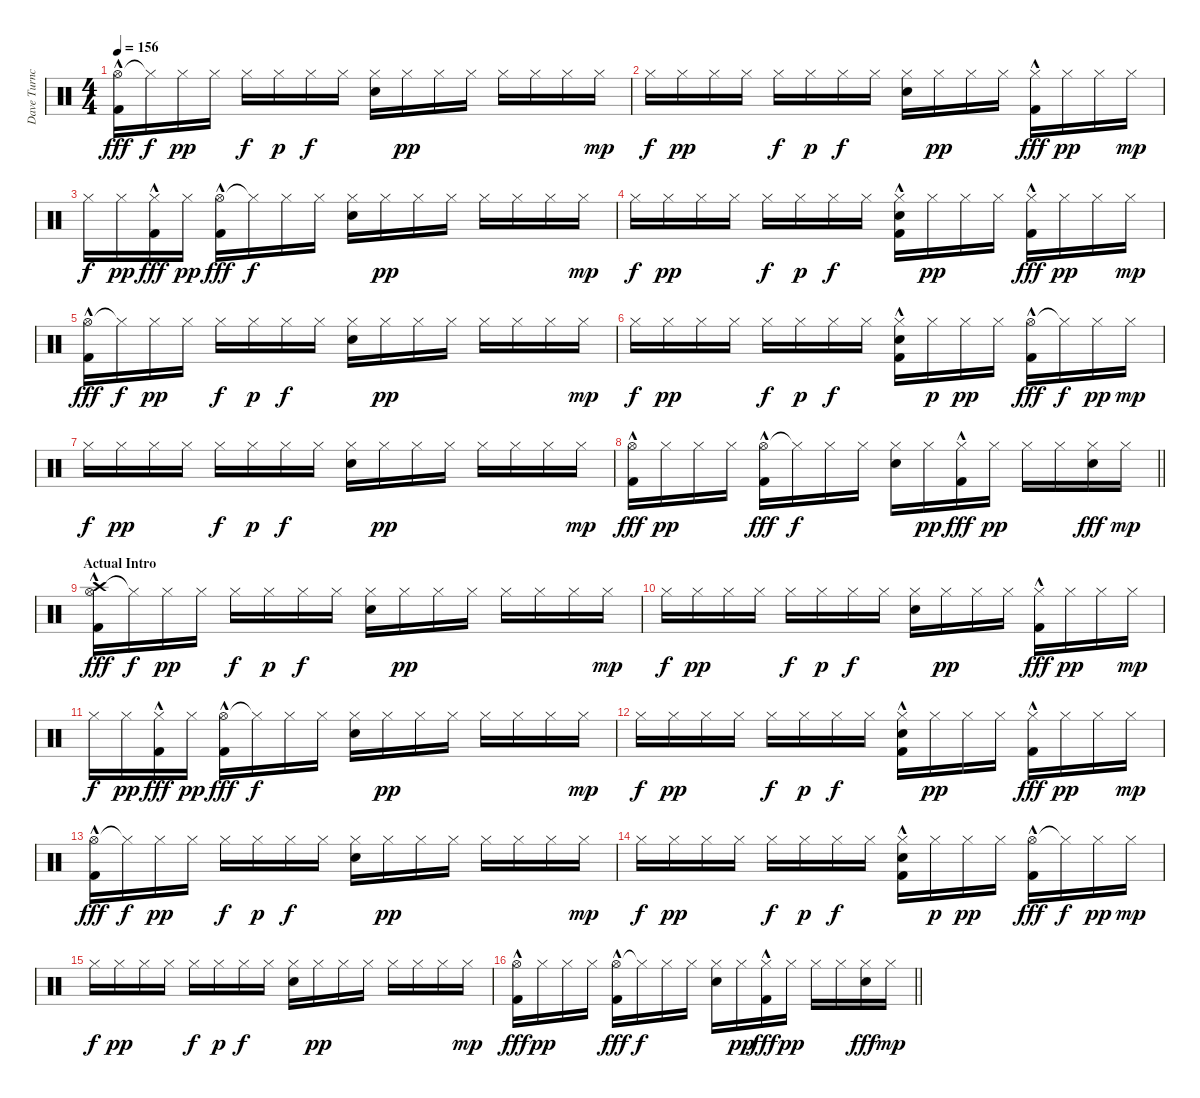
\track ("Dave Turncrantz" "Dave Turnc") {instrument percussion}
\staff {score}
\articulation defaults
\ts (4 4)
\tempo 156
\clef neutral
\ks c
("Hi-Hat (open)" "Kick (hit) 2"{hac}).16{dy fff} "Hi-Hat (closed)"{t}.16{dy f} "Hi-Hat (closed)".16{dy pp} "Hi-Hat (closed)".16 "Hi-Hat (closed)".16{dy f} "Hi-Hat (closed)".16{dy p} "Hi-Hat (closed)".16{dy f} "Hi-Hat (closed)".16 ("Hi-Hat (closed)" "Electric Snare (hit)").16 "Hi-Hat (closed)".16{dy pp} "Hi-Hat (closed)".16 "Hi-Hat (closed)".16 "Hi-Hat (closed)".16 "Hi-Hat (closed)".16 "Hi-Hat (closed)".16 "Hi-Hat (closed)".16{dy mp} |
"Hi-Hat (closed)".16{dy f} "Hi-Hat (closed)".16{dy pp} "Hi-Hat (closed)".16 "Hi-Hat (closed)".16 "Hi-Hat (closed)".16{dy f} "Hi-Hat (closed)".16{dy p} "Hi-Hat (closed)".16{dy f} "Hi-Hat (closed)".16 ("Hi-Hat (closed)" "Electric Snare (hit)").16 "Hi-Hat (closed)".16{dy pp} "Hi-Hat (closed)".16 "Hi-Hat (closed)".16 ("Hi-Hat (closed)" "Kick (hit) 2"{hac}).16{dy fff} "Hi-Hat (closed)".16{dy pp} "Hi-Hat (closed)".16 "Hi-Hat (closed)".16{dy mp} |
"Hi-Hat (closed)".16{dy f} "Hi-Hat (closed)".16{dy pp} ("Hi-Hat (closed)" "Kick (hit) 2"{hac}).16{dy fff} "Hi-Hat (closed)".16{dy pp} ("Hi-Hat (open)" "Kick (hit) 2"{hac}).16{dy fff} "Hi-Hat (closed)"{t}.16{dy f} "Hi-Hat (closed)".16 "Hi-Hat (closed)".16 ("Hi-Hat (closed)" "Electric Snare (hit)").16 "Hi-Hat (closed)".16{dy pp} "Hi-Hat (closed)".16 "Hi-Hat (closed)".16 "Hi-Hat (closed)".16 "Hi-Hat (closed)".16 "Hi-Hat (closed)".16 "Hi-Hat (closed)".16{dy mp} |
"Hi-Hat (closed)".16{dy f} "Hi-Hat (closed)".16{dy pp} "Hi-Hat (closed)".16 "Hi-Hat (closed)".16 "Hi-Hat (closed)".16{dy f} "Hi-Hat (closed)".16{dy p} "Hi-Hat (closed)".16{dy f} "Hi-Hat (closed)".16 ("Hi-Hat (closed)" "Electric Snare (hit)" "Kick (hit) 2"{hac}).16 "Hi-Hat (closed)".16{dy pp} "Hi-Hat (closed)".16 "Hi-Hat (closed)".16 ("Hi-Hat (closed)" "Kick (hit) 2"{hac}).16{dy fff} "Hi-Hat (closed)".16{dy pp} "Hi-Hat (closed)".16 "Hi-Hat (closed)".16{dy mp} |
("Hi-Hat (open)" "Kick (hit) 2"{hac}).16{dy fff} "Hi-Hat (closed)"{t}.16{dy f} "Hi-Hat (closed)".16{dy pp} "Hi-Hat (closed)".16 "Hi-Hat (closed)".16{dy f} "Hi-Hat (closed)".16{dy p} "Hi-Hat (closed)".16{dy f} "Hi-Hat (closed)".16 ("Hi-Hat (closed)" "Electric Snare (hit)").16 "Hi-Hat (closed)".16{dy pp} "Hi-Hat (closed)".16 "Hi-Hat (closed)".16 "Hi-Hat (closed)".16 "Hi-Hat (closed)".16 "Hi-Hat (closed)".16 "Hi-Hat (closed)".16{dy mp} |
"Hi-Hat (closed)".16{dy f} "Hi-Hat (closed)".16{dy pp} "Hi-Hat (closed)".16 "Hi-Hat (closed)".16 "Hi-Hat (closed)".16{dy f} "Hi-Hat (closed)".16{dy p} "Hi-Hat (closed)".16{dy f} "Hi-Hat (closed)".16 ("Hi-Hat (closed)" "Electric Snare (hit)" "Kick (hit) 2"{hac}).16 "Hi-Hat (closed)".16{dy p} "Hi-Hat (closed)".16{dy pp} "Hi-Hat (closed)".16 ("Hi-Hat (open)" "Kick (hit) 2"{hac}).16{dy fff} "Hi-Hat (closed)"{t}.16{dy f} "Hi-Hat (closed)".16{dy pp} "Hi-Hat (closed)".16{dy mp} |
"Hi-Hat (closed)".16{dy f} "Hi-Hat (closed)".16{dy pp} "Hi-Hat (closed)".16 "Hi-Hat (closed)".16 "Hi-Hat (closed)".16{dy f} "Hi-Hat (closed)".16{dy p} "Hi-Hat (closed)".16{dy f} "Hi-Hat (closed)".16 ("Hi-Hat (closed)" "Electric Snare (hit)").16 "Hi-Hat (closed)".16{dy pp} "Hi-Hat (closed)".16 "Hi-Hat (closed)".16 "Hi-Hat (closed)".16 "Hi-Hat (closed)".16 "Hi-Hat (closed)".16 "Hi-Hat (closed)".16{dy mp} |
\barLineRight lightlight
("Hi-Hat (open)" "Kick (hit) 2"{hac}).16{dy fff} "Hi-Hat (closed)".16{dy pp} "Hi-Hat (closed)".16 "Hi-Hat (closed)".16 ("Hi-Hat (open)" "Kick (hit) 2"{hac}).16{dy fff} "Hi-Hat (closed)"{t}.16{dy f} "Hi-Hat (closed)".16 "Hi-Hat (closed)".16 ("Hi-Hat (closed)" "Electric Snare (hit)").16 "Hi-Hat (closed)".16{dy pp} ("Hi-Hat (closed)" "Kick (hit) 2"{hac}).16{dy fff} "Hi-Hat (closed)".16{dy pp} "Hi-Hat (closed)".16 "Hi-Hat (closed)".16 ("Hi-Hat (closed)" "Electric Snare (hit)").16{dy fff} "Hi-Hat (closed)".16{dy mp} |
\section ("" "Actual Intro")
("Crash high (hit)" "Hi-Hat (open)" "Kick (hit) 2"{hac}).16{dy fff} "Hi-Hat (closed)"{t}.16{dy f} "Hi-Hat (closed)".16{dy pp} "Hi-Hat (closed)".16 "Hi-Hat (closed)".16{dy f} "Hi-Hat (closed)".16{dy p} "Hi-Hat (closed)".16{dy f} "Hi-Hat (closed)".16 ("Hi-Hat (closed)" "Electric Snare (hit)").16 "Hi-Hat (closed)".16{dy pp} "Hi-Hat (closed)".16 "Hi-Hat (closed)".16 "Hi-Hat (closed)".16 "Hi-Hat (closed)".16 "Hi-Hat (closed)".16 "Hi-Hat (closed)".16{dy mp} |
"Hi-Hat (closed)".16{dy f} "Hi-Hat (closed)".16{dy pp} "Hi-Hat (closed)".16 "Hi-Hat (closed)".16 "Hi-Hat (closed)".16{dy f} "Hi-Hat (closed)".16{dy p} "Hi-Hat (closed)".16{dy f} "Hi-Hat (closed)".16 ("Hi-Hat (closed)" "Electric Snare (hit)").16 "Hi-Hat (closed)".16{dy pp} "Hi-Hat (closed)".16 "Hi-Hat (closed)".16 ("Hi-Hat (closed)" "Kick (hit) 2"{hac}).16{dy fff} "Hi-Hat (closed)".16{dy pp} "Hi-Hat (closed)".16 "Hi-Hat (closed)".16{dy mp} |
"Hi-Hat (closed)".16{dy f} "Hi-Hat (closed)".16{dy pp} ("Hi-Hat (closed)" "Kick (hit) 2"{hac}).16{dy fff} "Hi-Hat (closed)".16{dy pp} ("Hi-Hat (open)" "Kick (hit) 2"{hac}).16{dy fff} "Hi-Hat (closed)"{t}.16{dy f} "Hi-Hat (closed)".16 "Hi-Hat (closed)".16 ("Hi-Hat (closed)" "Electric Snare (hit)").16 "Hi-Hat (closed)".16{dy pp} "Hi-Hat (closed)".16 "Hi-Hat (closed)".16 "Hi-Hat (closed)".16 "Hi-Hat (closed)".16 "Hi-Hat (closed)".16 "Hi-Hat (closed)".16{dy mp} |
"Hi-Hat (closed)".16{dy f} "Hi-Hat (closed)".16{dy pp} "Hi-Hat (closed)".16 "Hi-Hat (closed)".16 "Hi-Hat (closed)".16{dy f} "Hi-Hat (closed)".16{dy p} "Hi-Hat (closed)".16{dy f} "Hi-Hat (closed)".16 ("Hi-Hat (closed)" "Electric Snare (hit)" "Kick (hit) 2"{hac}).16 "Hi-Hat (closed)".16{dy pp} "Hi-Hat (closed)".16 "Hi-Hat (closed)".16 ("Hi-Hat (closed)" "Kick (hit) 2"{hac}).16{dy fff} "Hi-Hat (closed)".16{dy pp} "Hi-Hat (closed)".16 "Hi-Hat (closed)".16{dy mp} |
("Hi-Hat (open)" "Kick (hit) 2"{hac}).16{dy fff} "Hi-Hat (closed)"{t}.16{dy f} "Hi-Hat (closed)".16{dy pp} "Hi-Hat (closed)".16 "Hi-Hat (closed)".16{dy f} "Hi-Hat (closed)".16{dy p} "Hi-Hat (closed)".16{dy f} "Hi-Hat (closed)".16 ("Hi-Hat (closed)" "Electric Snare (hit)").16 "Hi-Hat (closed)".16{dy pp} "Hi-Hat (closed)".16 "Hi-Hat (closed)".16 "Hi-Hat (closed)".16 "Hi-Hat (closed)".16 "Hi-Hat (closed)".16 "Hi-Hat (closed)".16{dy mp} |
"Hi-Hat (closed)".16{dy f} "Hi-Hat (closed)".16{dy pp} "Hi-Hat (closed)".16 "Hi-Hat (closed)".16 "Hi-Hat (closed)".16{dy f} "Hi-Hat (closed)".16{dy p} "Hi-Hat (closed)".16{dy f} "Hi-Hat (closed)".16 ("Hi-Hat (closed)" "Electric Snare (hit)" "Kick (hit) 2"{hac}).16 "Hi-Hat (closed)".16{dy p} "Hi-Hat (closed)".16{dy pp} "Hi-Hat (closed)".16 ("Hi-Hat (open)" "Kick (hit) 2"{hac}).16{dy fff} "Hi-Hat (closed)"{t}.16{dy f} "Hi-Hat (closed)".16{dy pp} "Hi-Hat (closed)".16{dy mp} |
"Hi-Hat (closed)".16{dy f} "Hi-Hat (closed)".16{dy pp} "Hi-Hat (closed)".16 "Hi-Hat (closed)".16 "Hi-Hat (closed)".16{dy f} "Hi-Hat (closed)".16{dy p} "Hi-Hat (closed)".16{dy f} "Hi-Hat (closed)".16 ("Hi-Hat (closed)" "Electric Snare (hit)").16 "Hi-Hat (closed)".16{dy pp} "Hi-Hat (closed)".16 "Hi-Hat (closed)".16 "Hi-Hat (closed)".16 "Hi-Hat (closed)".16 "Hi-Hat (closed)".16 "Hi-Hat (closed)".16{dy mp} |
\barLineRight lightlight
("Hi-Hat (open)" "Kick (hit) 2"{hac}).16{dy fff} "Hi-Hat (closed)".16{dy pp} "Hi-Hat (closed)".16 "Hi-Hat (closed)".16 ("Hi-Hat (open)" "Kick (hit) 2"{hac}).16{dy fff} "Hi-Hat (closed)"{t}.16{dy f} "Hi-Hat (closed)".16 "Hi-Hat (closed)".16 ("Hi-Hat (closed)" "Electric Snare (hit)").16 "Hi-Hat (closed)".16{dy pp} ("Hi-Hat (closed)" "Kick (hit) 2"{hac}).16{dy fff} "Hi-Hat (closed)".16{dy pp} "Hi-Hat (closed)".16 "Hi-Hat (closed)".16 ("Hi-Hat (closed)" "Electric Snare (hit)").16{dy fff} "Hi-Hat (closed)".16{dy mp}
